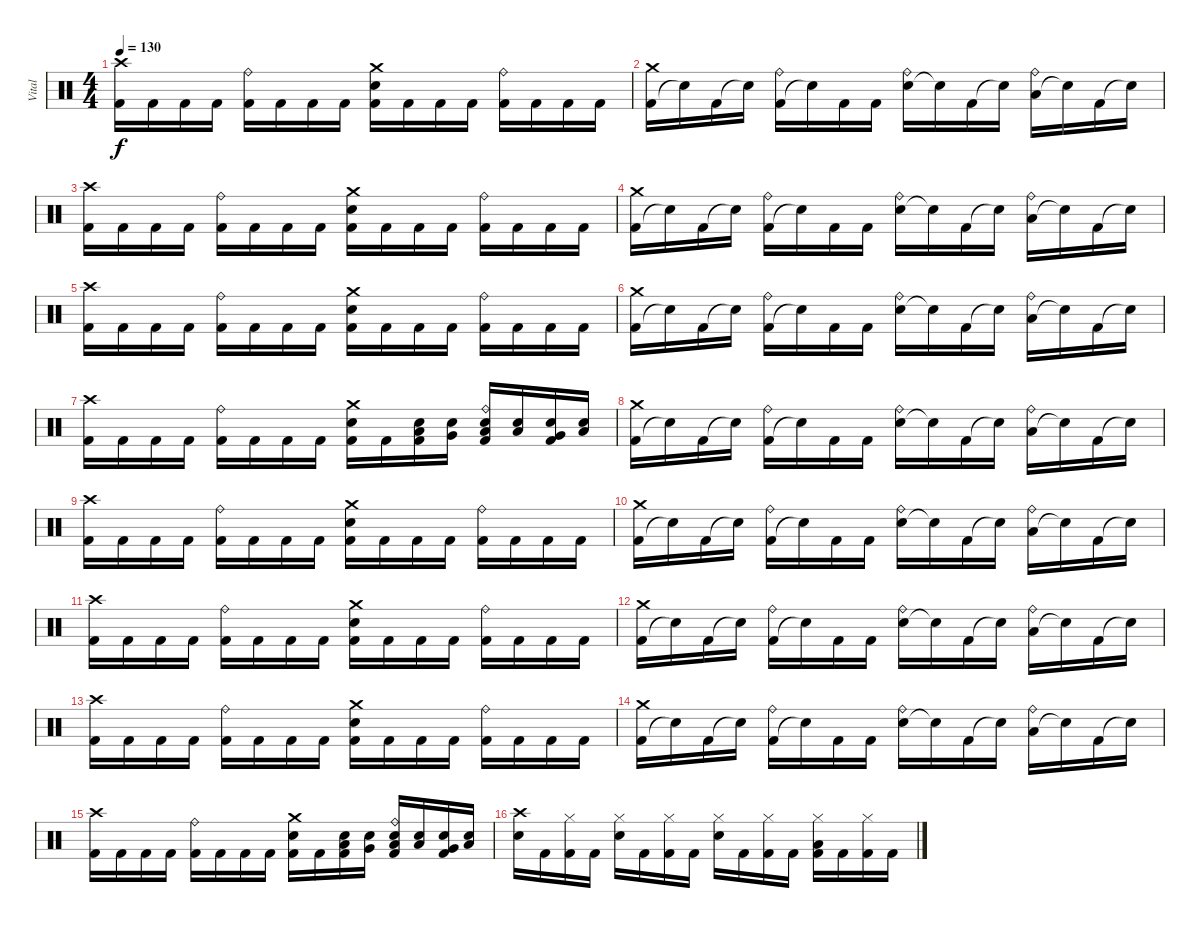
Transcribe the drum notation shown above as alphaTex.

\track ("Vital" "Vital") {instrument percussion}
\staff {score}
\articulation defaults
\ts (4 4)
\tempo 130
\clef neutral
\ks c
("Kick (hit) 2" "Crash high (hit)").16{dy f} "Kick (hit) 2".16 "Kick (hit) 2".16 "Kick (hit) 2".16 ("Kick (hit) 2" "Ride (bell)").16 "Kick (hit) 2".16 "Kick (hit) 2".16 "Kick (hit) 2".16 ("Kick (hit) 2" "Snare (hit) 2" "Crash medium (hit)").16 "Kick (hit) 2".16 "Kick (hit) 2".16 "Kick (hit) 2".16 ("Kick (hit) 2" "Ride (bell)").16 "Kick (hit) 2".16 "Kick (hit) 2".16 "Kick (hit) 2".16 |
("Kick (hit) 2" "Crash medium (hit)").16 "Snare (hit)"{t}.16 "Kick (hit) 2".16 "Snare (hit)"{t}.16 ("Kick (hit) 2" "Ride (bell)").16 "Snare (hit)"{t}.16 "Kick (hit) 2".16 "Kick (hit) 2".16 ("Snare (hit) 2" "Ride (bell)").16 "Snare (hit)"{t}.16 "Kick (hit) 2".16 "Snare (hit)"{t}.16 ("Low Floor Tom (hit)" "Ride (bell)").16 "Snare (hit)"{t}.16 "Kick (hit) 2".16 "Snare (hit)"{t}.16 |
("Kick (hit) 2" "Crash high (hit)").16 "Kick (hit) 2".16 "Kick (hit) 2".16 "Kick (hit) 2".16 ("Kick (hit) 2" "Ride (bell)").16 "Kick (hit) 2".16 "Kick (hit) 2".16 "Kick (hit) 2".16 ("Kick (hit) 2" "Snare (hit) 2" "Crash medium (hit)").16 "Kick (hit) 2".16 "Kick (hit) 2".16 "Kick (hit) 2".16 ("Kick (hit) 2" "Ride (bell)").16 "Kick (hit) 2".16 "Kick (hit) 2".16 "Kick (hit) 2".16 |
("Kick (hit) 2" "Crash medium (hit)").16 "Snare (hit)"{t}.16 "Kick (hit) 2".16 "Snare (hit)"{t}.16 ("Kick (hit) 2" "Ride (bell)").16 "Snare (hit)"{t}.16 "Kick (hit) 2".16 "Kick (hit) 2".16 ("Snare (hit) 2" "Ride (bell)").16 "Snare (hit)"{t}.16 "Kick (hit) 2".16 "Snare (hit)"{t}.16 ("Low Floor Tom (hit)" "Ride (bell)").16 "Snare (hit)"{t}.16 "Kick (hit) 2".16 "Snare (hit)"{t}.16 |
("Kick (hit) 2" "Crash high (hit)").16 "Kick (hit) 2".16 "Kick (hit) 2".16 "Kick (hit) 2".16 ("Kick (hit) 2" "Ride (bell)").16 "Kick (hit) 2".16 "Kick (hit) 2".16 "Kick (hit) 2".16 ("Kick (hit) 2" "Snare (hit) 2" "Crash medium (hit)").16 "Kick (hit) 2".16 "Kick (hit) 2".16 "Kick (hit) 2".16 ("Kick (hit) 2" "Ride (bell)").16 "Kick (hit) 2".16 "Kick (hit) 2".16 "Kick (hit) 2".16 |
("Kick (hit) 2" "Crash medium (hit)").16 "Snare (hit)"{t}.16 "Kick (hit) 2".16 "Snare (hit)"{t}.16 ("Kick (hit) 2" "Ride (bell)").16 "Snare (hit)"{t}.16 "Kick (hit) 2".16 "Kick (hit) 2".16 ("Snare (hit) 2" "Ride (bell)").16 "Snare (hit)"{t}.16 "Kick (hit) 2".16 "Snare (hit)"{t}.16 ("Low Floor Tom (hit)" "Ride (bell)").16 "Snare (hit)"{t}.16 "Kick (hit) 2".16 "Snare (hit)"{t}.16 |
("Kick (hit) 2" "Crash high (hit)").16 "Kick (hit) 2".16 "Kick (hit) 2".16 "Kick (hit) 2".16 ("Kick (hit) 2" "Ride (bell)").16 "Kick (hit) 2".16 "Kick (hit) 2".16 "Kick (hit) 2".16 ("Kick (hit) 2" "Snare (hit) 2" "Crash medium (hit)").16 "Kick (hit) 2".16 ("Low Tom (hit)" "Kick (hit) 2" "Snare (hit) 2").16 ("Very Low Tom (hit)" "Snare (hit) 2").16 ("Low Tom (hit)" "Kick (hit) 2" "Snare (hit) 2" "Ride (bell)").16 ("Low Floor Tom (hit)" "Snare (hit) 2").16 ("Very Low Tom (hit)" "Kick (hit) 2" "Snare (hit) 2").16 ("Low Floor Tom (hit)" "Snare (hit) 2").16 |
("Kick (hit) 2" "Crash medium (hit)").16 "Snare (hit)"{t}.16 "Kick (hit) 2".16 "Snare (hit)"{t}.16 ("Kick (hit) 2" "Ride (bell)").16 "Snare (hit)"{t}.16 "Kick (hit) 2".16 "Kick (hit) 2".16 ("Snare (hit) 2" "Ride (bell)").16 "Snare (hit)"{t}.16 "Kick (hit) 2".16 "Snare (hit)"{t}.16 ("Low Floor Tom (hit)" "Ride (bell)").16 "Snare (hit)"{t}.16 "Kick (hit) 2".16 "Snare (hit)"{t}.16 |
("Kick (hit) 2" "Crash high (hit)").16 "Kick (hit) 2".16 "Kick (hit) 2".16 "Kick (hit) 2".16 ("Kick (hit) 2" "Ride (bell)").16 "Kick (hit) 2".16 "Kick (hit) 2".16 "Kick (hit) 2".16 ("Kick (hit) 2" "Snare (hit) 2" "Crash medium (hit)").16 "Kick (hit) 2".16 "Kick (hit) 2".16 "Kick (hit) 2".16 ("Kick (hit) 2" "Ride (bell)").16 "Kick (hit) 2".16 "Kick (hit) 2".16 "Kick (hit) 2".16 |
("Kick (hit) 2" "Crash medium (hit)").16 "Snare (hit)"{t}.16 "Kick (hit) 2".16 "Snare (hit)"{t}.16 ("Kick (hit) 2" "Ride (bell)").16 "Snare (hit)"{t}.16 "Kick (hit) 2".16 "Kick (hit) 2".16 ("Snare (hit) 2" "Ride (bell)").16 "Snare (hit)"{t}.16 "Kick (hit) 2".16 "Snare (hit)"{t}.16 ("Low Floor Tom (hit)" "Ride (bell)").16 "Snare (hit)"{t}.16 "Kick (hit) 2".16 "Snare (hit)"{t}.16 |
("Kick (hit) 2" "Crash high (hit)").16 "Kick (hit) 2".16 "Kick (hit) 2".16 "Kick (hit) 2".16 ("Kick (hit) 2" "Ride (bell)").16 "Kick (hit) 2".16 "Kick (hit) 2".16 "Kick (hit) 2".16 ("Kick (hit) 2" "Snare (hit) 2" "Crash medium (hit)").16 "Kick (hit) 2".16 "Kick (hit) 2".16 "Kick (hit) 2".16 ("Kick (hit) 2" "Ride (bell)").16 "Kick (hit) 2".16 "Kick (hit) 2".16 "Kick (hit) 2".16 |
("Kick (hit) 2" "Crash medium (hit)").16 "Snare (hit)"{t}.16 "Kick (hit) 2".16 "Snare (hit)"{t}.16 ("Kick (hit) 2" "Ride (bell)").16 "Snare (hit)"{t}.16 "Kick (hit) 2".16 "Kick (hit) 2".16 ("Snare (hit) 2" "Ride (bell)").16 "Snare (hit)"{t}.16 "Kick (hit) 2".16 "Snare (hit)"{t}.16 ("Low Floor Tom (hit)" "Ride (bell)").16 "Snare (hit)"{t}.16 "Kick (hit) 2".16 "Snare (hit)"{t}.16 |
("Kick (hit) 2" "Crash high (hit)").16 "Kick (hit) 2".16 "Kick (hit) 2".16 "Kick (hit) 2".16 ("Kick (hit) 2" "Ride (bell)").16 "Kick (hit) 2".16 "Kick (hit) 2".16 "Kick (hit) 2".16 ("Kick (hit) 2" "Snare (hit) 2" "Crash medium (hit)").16 "Kick (hit) 2".16 "Kick (hit) 2".16 "Kick (hit) 2".16 ("Kick (hit) 2" "Ride (bell)").16 "Kick (hit) 2".16 "Kick (hit) 2".16 "Kick (hit) 2".16 |
("Kick (hit) 2" "Crash medium (hit)").16 "Snare (hit)"{t}.16 "Kick (hit) 2".16 "Snare (hit)"{t}.16 ("Kick (hit) 2" "Ride (bell)").16 "Snare (hit)"{t}.16 "Kick (hit) 2".16 "Kick (hit) 2".16 ("Snare (hit) 2" "Ride (bell)").16 "Snare (hit)"{t}.16 "Kick (hit) 2".16 "Snare (hit)"{t}.16 ("Low Floor Tom (hit)" "Ride (bell)").16 "Snare (hit)"{t}.16 "Kick (hit) 2".16 "Snare (hit)"{t}.16 |
("Kick (hit) 2" "Crash high (hit)").16 "Kick (hit) 2".16 "Kick (hit) 2".16 "Kick (hit) 2".16 ("Kick (hit) 2" "Ride (bell)").16 "Kick (hit) 2".16 "Kick (hit) 2".16 "Kick (hit) 2".16 ("Kick (hit) 2" "Snare (hit) 2" "Crash medium (hit)").16 "Kick (hit) 2".16 ("Low Tom (hit)" "Kick (hit) 2" "Snare (hit) 2").16 ("Very Low Tom (hit)" "Snare (hit) 2").16 ("Low Tom (hit)" "Kick (hit) 2" "Snare (hit) 2" "Ride (bell)").16 ("Low Floor Tom (hit)" "Snare (hit) 2").16 ("Very Low Tom (hit)" "Kick (hit) 2" "Snare (hit) 2").16 ("Low Floor Tom (hit)" "Snare (hit) 2").16 |
("Snare (hit) 2" "Crash high (hit)").16 "Kick (hit) 2".16 ("Kick (hit) 2" "Hi-Hat (closed)").16 "Kick (hit) 2".16 ("Snare (hit) 2" "Hi-Hat (closed)").16 "Kick (hit) 2".16 ("Kick (hit) 2" "Hi-Hat (closed)").16 "Kick (hit) 2".16 ("Snare (hit) 2" "Hi-Hat (closed)").16 "Kick (hit) 2".16 ("Kick (hit) 2" "Hi-Hat (closed)").16 "Kick (hit) 2".16 ("Kick (hit) 2" "Low Floor Tom (hit)" "Hi-Hat (closed)").16 "Kick (hit) 2".16 ("Kick (hit) 2" "Hi-Hat (closed)").16 "Kick (hit) 2".16
